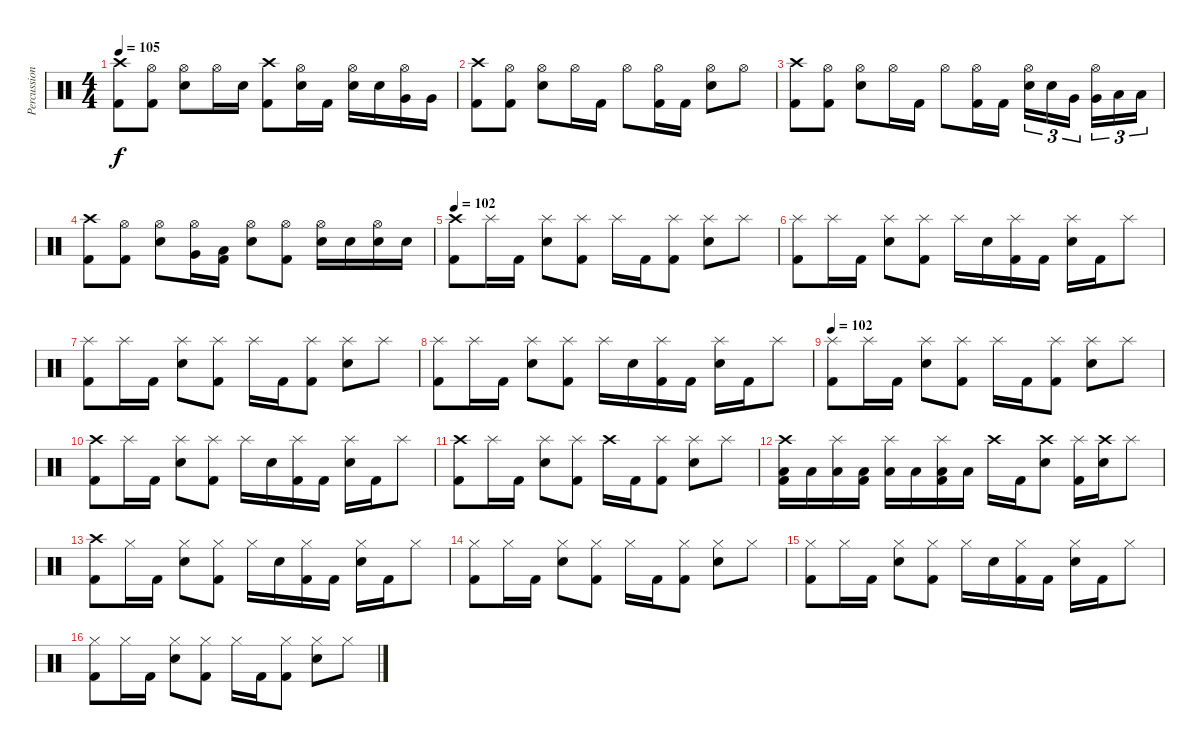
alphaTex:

\track ("Percussions" "Percussion") {instrument percussion}
\staff {score}
\articulation defaults
\ts (4 4)
\tempo 105
\clef neutral
\ks c
("Crash high (hit)" "Kick (hit) 2").8{dy f} ("Hi-Hat (open)" "Kick (hit) 2").8 ("Hi-Hat (open)" "Electric Snare (hit)").8 "Hi-Hat (open)".16 "Electric Snare (hit)".16 ("Crash high (hit)" "Kick (hit) 2").8 ("Hi-Hat (open)" "Electric Snare (hit)").16 "Kick (hit) 2".16 ("Hi-Hat (open)" "Electric Snare (hit)").16 "Electric Snare (hit)".16 ("Hi-Hat (open)" "Very Low Tom (hit)").16 "Very Low Tom (hit)".16 |
("Crash high (hit)" "Kick (hit) 2").8 ("Hi-Hat (open)" "Kick (hit) 2").8 ("Hi-Hat (open)" "Electric Snare (hit)").8 "Hi-Hat (open)".16 "Kick (hit) 2".16 "Hi-Hat (open)".8 ("Hi-Hat (open)" "Kick (hit) 2").16 "Kick (hit) 2".16 ("Hi-Hat (open)" "Electric Snare (hit)").8 "Hi-Hat (open)".8 |
("Crash high (hit)" "Kick (hit) 2").8 ("Hi-Hat (open)" "Kick (hit) 2").8 ("Hi-Hat (open)" "Electric Snare (hit)").8 "Hi-Hat (open)".16 "Kick (hit) 2".16 "Hi-Hat (open)".8 ("Hi-Hat (open)" "Kick (hit) 2").16 "Kick (hit) 2".16 ("Hi-Hat (open)" "Electric Snare (hit)").16{tu (3 2)} "Electric Snare (hit)".16{tu (3 2)} "Very Low Tom (hit)".16{tu (3 2)} ("Hi-Hat (open)" "Very Low Tom (hit)").16{tu (3 2)} "Low Floor Tom (hit)".16{tu (3 2)} "Low Floor Tom (hit)".16{tu (3 2)} |
("Crash high (hit)" "Kick (hit) 2").8 ("Hi-Hat (open)" "Kick (hit) 2").8 ("Hi-Hat (open)" "Electric Snare (hit)").8 ("Hi-Hat (open)" "Very Low Tom (hit)").16 ("Low Floor Tom (hit)" "Kick (hit) 2").16 ("Hi-Hat (open)" "Electric Snare (hit)").8 ("Hi-Hat (open)" "Kick (hit) 2").8 ("Hi-Hat (open)" "Electric Snare (hit)").16 "Electric Snare (hit)".16 ("Hi-Hat (open)" "Electric Snare (hit)").16 "Electric Snare (hit)".16 |
\tempo 102
("Crash high (hit)" "Kick (hit) 2").8 "Splash (hit)".16 "Kick (hit) 2".16 ("Splash (hit)" "Electric Snare (hit)").8 ("Splash (hit)" "Kick (hit) 2").8 "Splash (hit)".16 "Kick (hit) 2".16 ("Splash (hit)" "Kick (hit) 2").8 ("Splash (hit)" "Electric Snare (hit)").8 "Splash (hit)".8 |
("Splash (hit)" "Kick (hit) 2").8 "Splash (hit)".16 "Kick (hit) 2".16 ("Splash (hit)" "Electric Snare (hit)").8 ("Splash (hit)" "Kick (hit) 2").8 "Splash (hit)".16 "Electric Snare (hit)".16 ("Splash (hit)" "Kick (hit) 2").16 "Kick (hit) 2".16 ("Splash (hit)" "Electric Snare (hit)").16 "Kick (hit) 2".16 "Splash (hit)".8 |
("Splash (hit)" "Kick (hit) 2").8 "Splash (hit)".16 "Kick (hit) 2".16 ("Splash (hit)" "Electric Snare (hit)").8 ("Splash (hit)" "Kick (hit) 2").8 "Splash (hit)".16 "Kick (hit) 2".16 ("Splash (hit)" "Kick (hit) 2").8 ("Splash (hit)" "Electric Snare (hit)").8 "Splash (hit)".8 |
("Splash (hit)" "Kick (hit) 2").8 "Splash (hit)".16 "Kick (hit) 2".16 ("Splash (hit)" "Electric Snare (hit)").8 ("Splash (hit)" "Kick (hit) 2").8 "Splash (hit)".16 "Electric Snare (hit)".16 ("Splash (hit)" "Kick (hit) 2").16 "Kick (hit) 2".16 ("Splash (hit)" "Electric Snare (hit)").16 "Kick (hit) 2".16 "Splash (hit)".8 |
\tempo 102
("Splash (hit)" "Kick (hit) 2").8 "Splash (hit)".16 "Kick (hit) 2".16 ("Splash (hit)" "Electric Snare (hit)").8 ("Splash (hit)" "Kick (hit) 2").8 "Splash (hit)".16 "Kick (hit) 2".16 ("Splash (hit)" "Kick (hit) 2").8 ("Splash (hit)" "Electric Snare (hit)").8 "Splash (hit)".8 |
("Crash high (hit)" "Kick (hit) 2").8 "Splash (hit)".16 "Kick (hit) 2".16 ("Splash (hit)" "Electric Snare (hit)").8 ("Splash (hit)" "Kick (hit) 2").8 "Splash (hit)".16 "Electric Snare (hit)".16 ("Splash (hit)" "Kick (hit) 2").16 "Kick (hit) 2".16 ("Splash (hit)" "Electric Snare (hit)").16 "Kick (hit) 2".16 "Splash (hit)".8 |
("Crash high (hit)" "Kick (hit) 2").8 "Splash (hit)".16 "Kick (hit) 2".16 ("Splash (hit)" "Electric Snare (hit)").8 ("Splash (hit)" "Kick (hit) 2").8 "Crash high (hit)".16 "Kick (hit) 2".16 ("Splash (hit)" "Kick (hit) 2").8 ("Splash (hit)" "Electric Snare (hit)").8 "Splash (hit)".8 |
("Crash high (hit)" "Low Floor Tom (hit)" "Kick (hit) 2").16 "Low Floor Tom (hit)".16 ("Splash (hit)" "Low Floor Tom (hit)").16 ("Low Floor Tom (hit)" "Kick (hit) 2").16 ("Splash (hit)" "Low Floor Tom (hit)").16 "Low Floor Tom (hit)".16 ("Splash (hit)" "Low Floor Tom (hit)" "Kick (hit) 2").16 "Low Floor Tom (hit)".16 "Crash high (hit)".16 "Kick (hit) 2".16 ("Crash high (hit)" "Electric Snare (hit)").8 ("Splash (hit)" "Kick (hit) 2").16 ("Crash high (hit)" "Electric Snare (hit)").16 "Splash (hit)".8 |
("Crash high (hit)" "Kick (hit) 2").8 "Hi-Hat (closed)".16 "Kick (hit) 2".16 ("Hi-Hat (closed)" "Electric Snare (hit)").8 ("Hi-Hat (closed)" "Kick (hit) 2").8 "Hi-Hat (closed)".16 "Electric Snare (hit)".16 ("Hi-Hat (closed)" "Kick (hit) 2").16 "Kick (hit) 2".16 ("Hi-Hat (closed)" "Electric Snare (hit)").16 "Kick (hit) 2".16 "Hi-Hat (closed)".8 |
("Hi-Hat (closed)" "Kick (hit) 2").8 "Hi-Hat (closed)".16 "Kick (hit) 2".16 ("Hi-Hat (closed)" "Electric Snare (hit)").8 ("Hi-Hat (closed)" "Kick (hit) 2").8 "Hi-Hat (closed)".16 "Kick (hit) 2".16 ("Hi-Hat (closed)" "Kick (hit) 2").8 ("Hi-Hat (closed)" "Electric Snare (hit)").8 "Hi-Hat (closed)".8 |
("Hi-Hat (closed)" "Kick (hit) 2").8 "Hi-Hat (closed)".16 "Kick (hit) 2".16 ("Hi-Hat (closed)" "Electric Snare (hit)").8 ("Hi-Hat (closed)" "Kick (hit) 2").8 "Hi-Hat (closed)".16 "Electric Snare (hit)".16 ("Hi-Hat (closed)" "Kick (hit) 2").16 "Kick (hit) 2".16 ("Hi-Hat (closed)" "Electric Snare (hit)").16 "Kick (hit) 2".16 "Hi-Hat (closed)".8 |
("Hi-Hat (closed)" "Kick (hit) 2").8 "Hi-Hat (closed)".16 "Kick (hit) 2".16 ("Hi-Hat (closed)" "Electric Snare (hit)").8 ("Hi-Hat (closed)" "Kick (hit) 2").8 "Hi-Hat (closed)".16 "Kick (hit) 2".16 ("Hi-Hat (closed)" "Kick (hit) 2").8 ("Hi-Hat (closed)" "Electric Snare (hit)").8 "Hi-Hat (closed)".8
